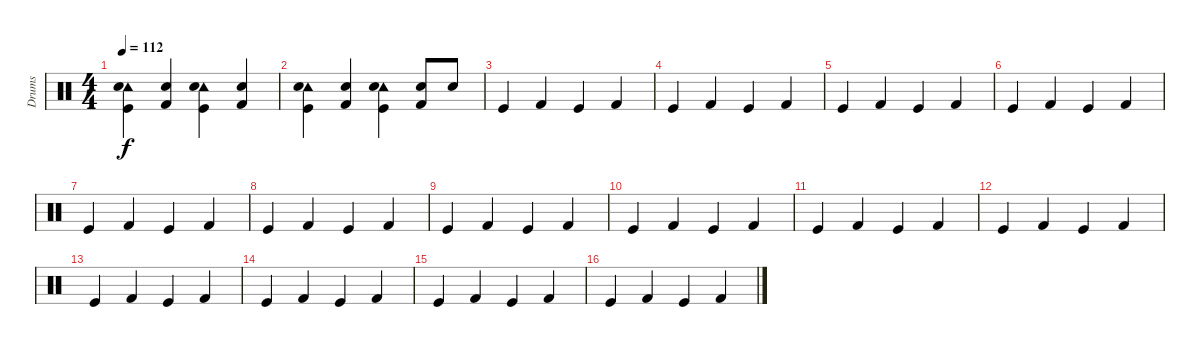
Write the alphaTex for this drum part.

\track ("Drums" "Drums") {instrument percussion}
\staff {score}
\articulation defaults
\ts (4 4)
\tempo 112
\clef neutral
\ks c
("Tambourine (hit)" "Kick (hit)" "Snare (hit) 2").4{dy f} ("Snare (hit) 2" "Kick (hit) 2").4 ("Kick (hit)" "Tambourine (hit)" "Snare (hit) 2").4 ("Snare (hit) 2" "Kick (hit) 2").4 |
("Tambourine (hit)" "Kick (hit)" "Snare (hit) 2").4 ("Snare (hit) 2" "Kick (hit) 2").4 ("Kick (hit)" "Tambourine (hit)" "Snare (hit) 2").4 ("Snare (hit) 2" "Kick (hit) 2").8 "Snare (hit) 2".8 |
"Kick (hit)".4 "Kick (hit) 2".4 "Kick (hit)".4 "Kick (hit) 2".4 |
"Kick (hit)".4 "Kick (hit) 2".4 "Kick (hit)".4 "Kick (hit) 2".4 |
"Kick (hit)".4 "Kick (hit) 2".4 "Kick (hit)".4 "Kick (hit) 2".4 |
"Kick (hit)".4 "Kick (hit) 2".4 "Kick (hit)".4 "Kick (hit) 2".4 |
"Kick (hit)".4 "Kick (hit) 2".4 "Kick (hit)".4 "Kick (hit) 2".4 |
"Kick (hit)".4 "Kick (hit) 2".4 "Kick (hit)".4 "Kick (hit) 2".4 |
"Kick (hit)".4 "Kick (hit) 2".4 "Kick (hit)".4 "Kick (hit) 2".4 |
"Kick (hit)".4 "Kick (hit) 2".4 "Kick (hit)".4 "Kick (hit) 2".4 |
"Kick (hit)".4 "Kick (hit) 2".4 "Kick (hit)".4 "Kick (hit) 2".4 |
"Kick (hit)".4 "Kick (hit) 2".4 "Kick (hit)".4 "Kick (hit) 2".4 |
"Kick (hit)".4 "Kick (hit) 2".4 "Kick (hit)".4 "Kick (hit) 2".4 |
"Kick (hit)".4 "Kick (hit) 2".4 "Kick (hit)".4 "Kick (hit) 2".4 |
"Kick (hit)".4 "Kick (hit) 2".4 "Kick (hit)".4 "Kick (hit) 2".4 |
"Kick (hit)".4 "Kick (hit) 2".4 "Kick (hit)".4 "Kick (hit) 2".4
